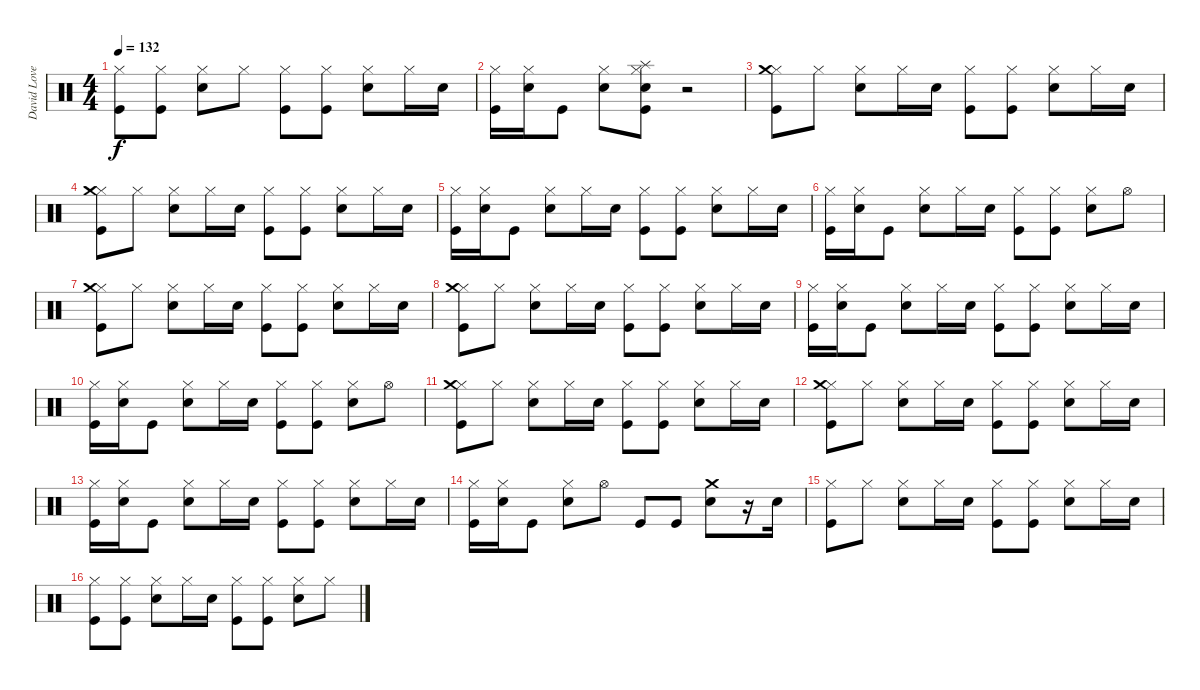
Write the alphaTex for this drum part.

\track ("David Lovering" "David Love") {instrument percussion}
\staff {score}
\articulation defaults
\ts (4 4)
\tempo 132
\clef neutral
\ks c
("Hi-Hat (closed)" "Kick (hit)").8{dy f} ("Hi-Hat (closed)" "Kick (hit)").8 ("Hi-Hat (closed)" "Snare (hit) 2").8 "Hi-Hat (closed)".8 ("Hi-Hat (closed)" "Kick (hit)").8 ("Hi-Hat (closed)" "Kick (hit)").8 ("Hi-Hat (closed)" "Snare (hit) 2").8 "Hi-Hat (closed)".16 "Snare (hit) 2".16 |
("Hi-Hat (closed)" "Kick (hit)").16 ("Hi-Hat (closed)" "Snare (hit) 2").16 "Kick (hit)".8 ("Hi-Hat (closed)" "Snare (hit) 2").8 ("Hi-Hat (closed)" "Splash (hit)" "Snare (hit) 2" "Kick (hit)").8 r.2 |
\section ("" "")
("Hi-Hat (closed)" "Crash medium (hit)" "Kick (hit)").8 "Hi-Hat (closed)".8 ("Hi-Hat (closed)" "Snare (hit) 2").8 "Hi-Hat (closed)".16 "Snare (hit) 2".16 ("Hi-Hat (closed)" "Kick (hit)").8 ("Hi-Hat (closed)" "Kick (hit)").8 ("Hi-Hat (closed)" "Snare (hit) 2").8 "Hi-Hat (closed)".16 "Snare (hit) 2".16 |
("Hi-Hat (closed)" "Crash medium (hit)" "Kick (hit)").8 "Hi-Hat (closed)".8 ("Hi-Hat (closed)" "Snare (hit) 2").8 "Hi-Hat (closed)".16 "Snare (hit) 2".16 ("Hi-Hat (closed)" "Kick (hit)").8 ("Hi-Hat (closed)" "Kick (hit)").8 ("Hi-Hat (closed)" "Snare (hit) 2").8 "Hi-Hat (closed)".16 "Snare (hit) 2".16 |
("Hi-Hat (closed)" "Kick (hit)").16 ("Hi-Hat (closed)" "Snare (hit) 2").16 "Kick (hit)".8 ("Hi-Hat (closed)" "Snare (hit) 2").8 "Hi-Hat (closed)".16 "Snare (hit) 2".16 ("Hi-Hat (closed)" "Kick (hit)").8 ("Hi-Hat (closed)" "Kick (hit)").8 ("Hi-Hat (closed)" "Snare (hit) 2").8 "Hi-Hat (closed)".16 "Snare (hit) 2".16 |
("Hi-Hat (closed)" "Kick (hit)").16 ("Hi-Hat (closed)" "Snare (hit) 2").16 "Kick (hit)".8 ("Hi-Hat (closed)" "Snare (hit) 2").8 "Hi-Hat (closed)".16 "Snare (hit) 2".16 ("Hi-Hat (closed)" "Kick (hit)").8 ("Hi-Hat (closed)" "Kick (hit)").8 ("Hi-Hat (closed)" "Snare (hit) 2").8 "Hi-Hat (open)".8 |
("Hi-Hat (closed)" "Crash medium (hit)" "Kick (hit)").8 "Hi-Hat (closed)".8 ("Hi-Hat (closed)" "Snare (hit) 2").8 "Hi-Hat (closed)".16 "Snare (hit) 2".16 ("Hi-Hat (closed)" "Kick (hit)").8 ("Hi-Hat (closed)" "Kick (hit)").8 ("Hi-Hat (closed)" "Snare (hit) 2").8 "Hi-Hat (closed)".16 "Snare (hit) 2".16 |
("Hi-Hat (closed)" "Crash medium (hit)" "Kick (hit)").8 "Hi-Hat (closed)".8 ("Hi-Hat (closed)" "Snare (hit) 2").8 "Hi-Hat (closed)".16 "Snare (hit) 2".16 ("Hi-Hat (closed)" "Kick (hit)").8 ("Hi-Hat (closed)" "Kick (hit)").8 ("Hi-Hat (closed)" "Snare (hit) 2").8 "Hi-Hat (closed)".16 "Snare (hit) 2".16 |
("Hi-Hat (closed)" "Kick (hit)").16 ("Hi-Hat (closed)" "Snare (hit) 2").16 "Kick (hit)".8 ("Hi-Hat (closed)" "Snare (hit) 2").8 "Hi-Hat (closed)".16 "Snare (hit) 2".16 ("Hi-Hat (closed)" "Kick (hit)").8 ("Hi-Hat (closed)" "Kick (hit)").8 ("Hi-Hat (closed)" "Snare (hit) 2").8 "Hi-Hat (closed)".16 "Snare (hit) 2".16 |
("Hi-Hat (closed)" "Kick (hit)").16 ("Hi-Hat (closed)" "Snare (hit) 2").16 "Kick (hit)".8 ("Hi-Hat (closed)" "Snare (hit) 2").8 "Hi-Hat (closed)".16 "Snare (hit) 2".16 ("Hi-Hat (closed)" "Kick (hit)").8 ("Hi-Hat (closed)" "Kick (hit)").8 ("Hi-Hat (closed)" "Snare (hit) 2").8 "Hi-Hat (open)".8 |
("Hi-Hat (closed)" "Crash medium (hit)" "Kick (hit)").8 "Hi-Hat (closed)".8 ("Hi-Hat (closed)" "Snare (hit) 2").8 "Hi-Hat (closed)".16 "Snare (hit) 2".16 ("Hi-Hat (closed)" "Kick (hit)").8 ("Hi-Hat (closed)" "Kick (hit)").8 ("Hi-Hat (closed)" "Snare (hit) 2").8 "Hi-Hat (closed)".16 "Snare (hit) 2".16 |
("Hi-Hat (closed)" "Crash medium (hit)" "Kick (hit)").8 "Hi-Hat (closed)".8 ("Hi-Hat (closed)" "Snare (hit) 2").8 "Hi-Hat (closed)".16 "Snare (hit) 2".16 ("Hi-Hat (closed)" "Kick (hit)").8 ("Hi-Hat (closed)" "Kick (hit)").8 ("Hi-Hat (closed)" "Snare (hit) 2").8 "Hi-Hat (closed)".16 "Snare (hit) 2".16 |
("Hi-Hat (closed)" "Kick (hit)").16 ("Hi-Hat (closed)" "Snare (hit) 2").16 "Kick (hit)".8 ("Hi-Hat (closed)" "Snare (hit) 2").8 "Hi-Hat (closed)".16 "Snare (hit) 2".16 ("Hi-Hat (closed)" "Kick (hit)").8 ("Hi-Hat (closed)" "Kick (hit)").8 ("Hi-Hat (closed)" "Snare (hit) 2").8 "Hi-Hat (closed)".16 "Snare (hit) 2".16 |
("Hi-Hat (closed)" "Kick (hit)").16 ("Hi-Hat (closed)" "Snare (hit) 2").16 "Kick (hit)".8 ("Hi-Hat (closed)" "Snare (hit) 2").8 "Hi-Hat (open)".8 "Kick (hit)".8 "Kick (hit)".8 ("Crash medium (hit)" "Snare (hit) 2").8 r.16 "Snare (hit) 2".16 |
\section ("" "")
("Hi-Hat (closed)" "Kick (hit)").8 "Hi-Hat (closed)".8 ("Hi-Hat (closed)" "Snare (hit) 2").8 "Hi-Hat (closed)".16 "Snare (hit) 2".16 ("Hi-Hat (closed)" "Kick (hit)").8 ("Hi-Hat (closed)" "Kick (hit)").8 ("Hi-Hat (closed)" "Snare (hit) 2").8 "Hi-Hat (closed)".16 "Snare (hit) 2".16 |
("Hi-Hat (closed)" "Kick (hit)").8 ("Hi-Hat (closed)" "Kick (hit)").8 ("Hi-Hat (closed)" "Snare (hit) 2").8 "Hi-Hat (closed)".16 "Snare (hit) 2".16 ("Hi-Hat (closed)" "Kick (hit)").8 ("Hi-Hat (closed)" "Kick (hit)").8 ("Hi-Hat (closed)" "Snare (hit) 2").8 "Hi-Hat (closed)".8
